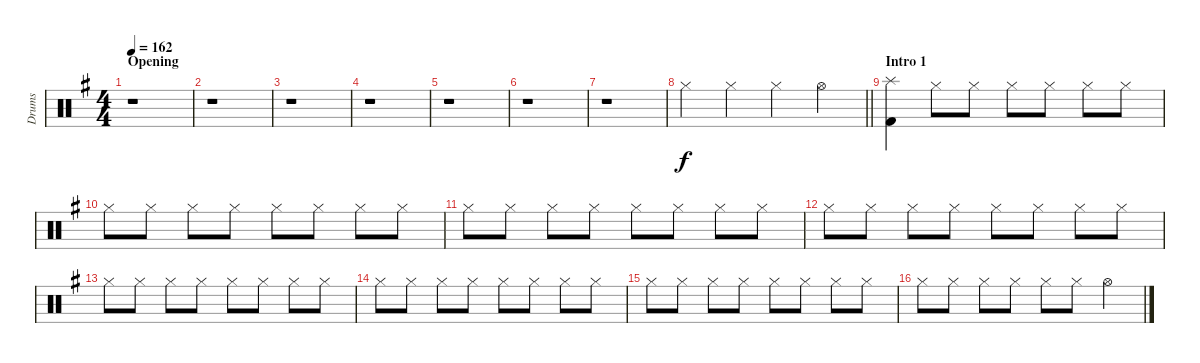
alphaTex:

\track ("Drums" "Drums") {instrument percussion}
\staff {score}
\articulation defaults
\ts (4 4)
\section ("" "Opening")
\tempo 162
\clef neutral
\ks g
r.1{dy f} |
r.1 |
r.1 |
r.1 |
r.1 |
r.1 |
r.1 |
\barLineRight lightlight "Hi-Hat (closed)".4 "Hi-Hat (closed)".4 "Hi-Hat (closed)".4 "Hi-Hat (open)".4
|
\section ("" "Intro 1")
("Splash (hit)" "Kick (hit) 2").4 "Hi-Hat (closed)".8 "Hi-Hat (closed)".8 "Hi-Hat (closed)".8 "Hi-Hat (closed)".8 "Hi-Hat (closed)".8 "Hi-Hat (closed)".8 |
"Hi-Hat (closed)".8 "Hi-Hat (closed)".8 "Hi-Hat (closed)".8 "Hi-Hat (closed)".8 "Hi-Hat (closed)".8 "Hi-Hat (closed)".8 "Hi-Hat (closed)".8 "Hi-Hat (closed)".8 |
"Hi-Hat (closed)".8 "Hi-Hat (closed)".8 "Hi-Hat (closed)".8 "Hi-Hat (closed)".8 "Hi-Hat (closed)".8 "Hi-Hat (closed)".8 "Hi-Hat (closed)".8 "Hi-Hat (closed)".8 |
"Hi-Hat (closed)".8 "Hi-Hat (closed)".8 "Hi-Hat (closed)".8 "Hi-Hat (closed)".8 "Hi-Hat (closed)".8 "Hi-Hat (closed)".8 "Hi-Hat (closed)".8 "Hi-Hat (closed)".8 |
"Hi-Hat (closed)".8 "Hi-Hat (closed)".8 "Hi-Hat (closed)".8 "Hi-Hat (closed)".8 "Hi-Hat (closed)".8 "Hi-Hat (closed)".8 "Hi-Hat (closed)".8 "Hi-Hat (closed)".8 |
"Hi-Hat (closed)".8 "Hi-Hat (closed)".8 "Hi-Hat (closed)".8 "Hi-Hat (closed)".8 "Hi-Hat (closed)".8 "Hi-Hat (closed)".8 "Hi-Hat (closed)".8 "Hi-Hat (closed)".8 |
"Hi-Hat (closed)".8 "Hi-Hat (closed)".8 "Hi-Hat (closed)".8 "Hi-Hat (closed)".8 "Hi-Hat (closed)".8 "Hi-Hat (closed)".8 "Hi-Hat (closed)".8 "Hi-Hat (closed)".8 |
"Hi-Hat (closed)".8 "Hi-Hat (closed)".8 "Hi-Hat (closed)".8 "Hi-Hat (closed)".8 "Hi-Hat (closed)".8 "Hi-Hat (closed)".8 "Hi-Hat (open)".4
